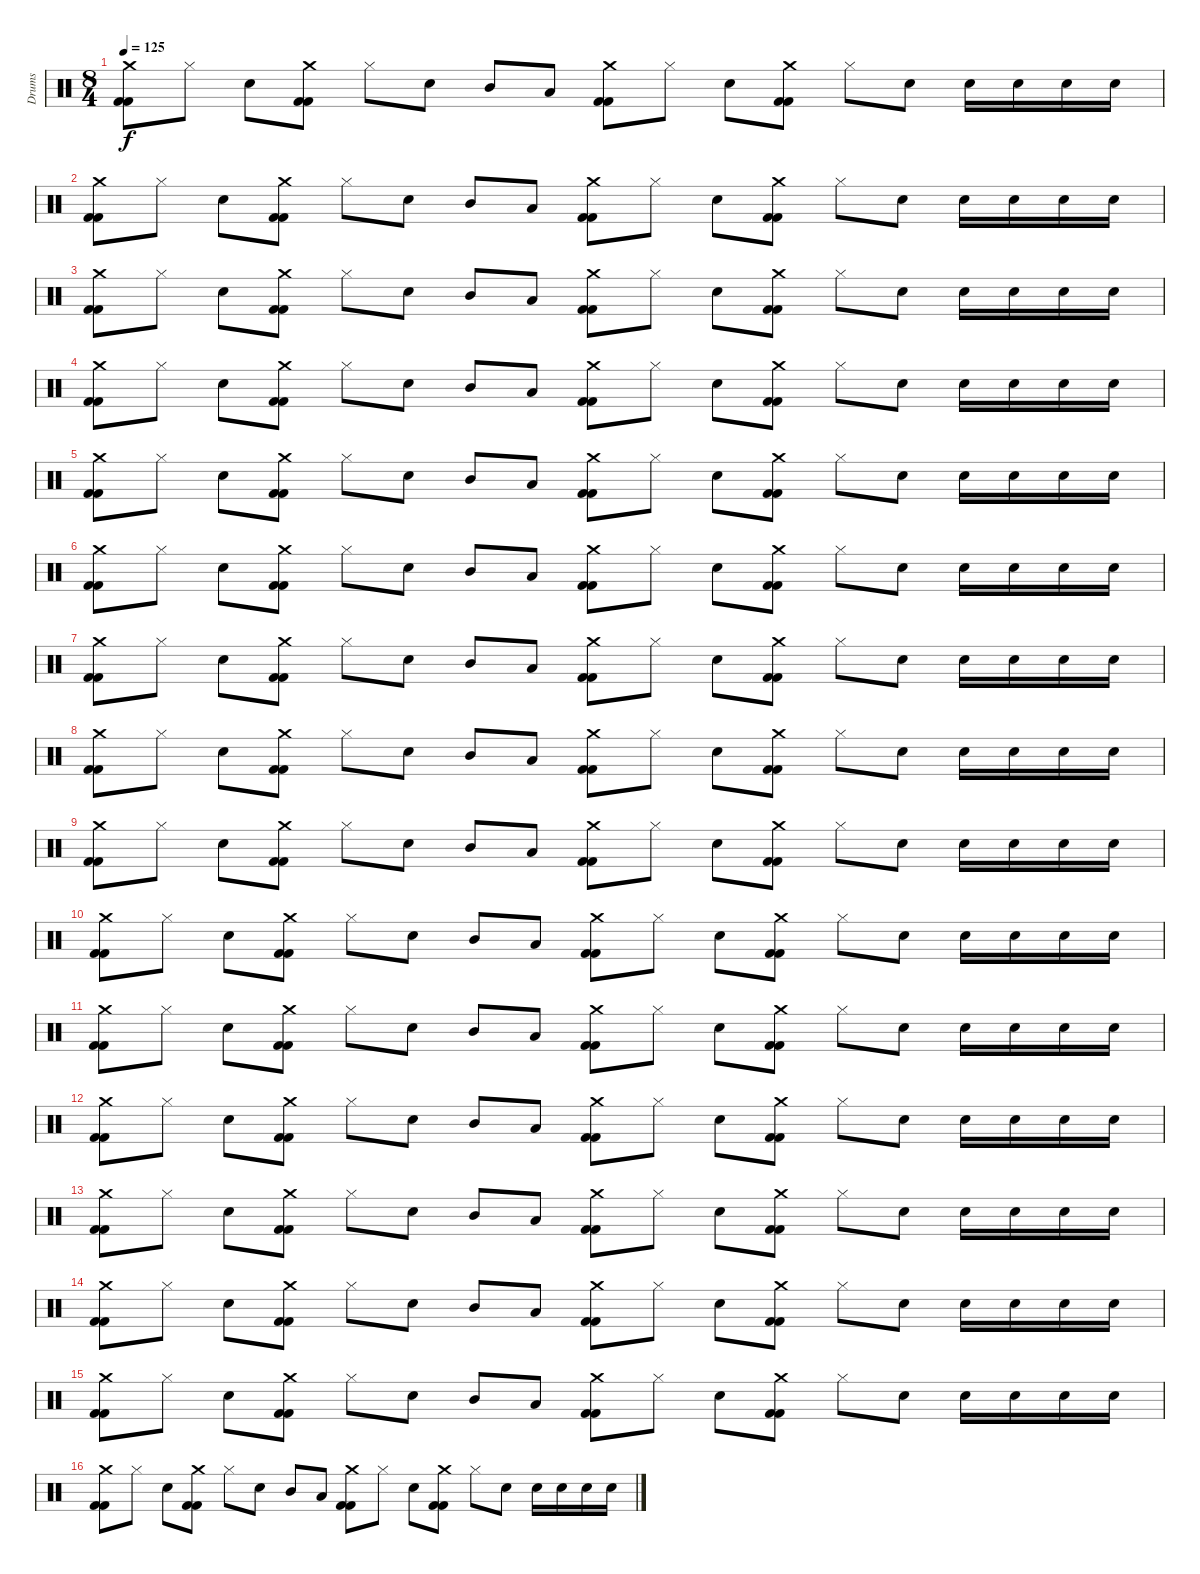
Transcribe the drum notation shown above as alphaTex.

\track ("Drums" "Drums") {instrument percussion}
\staff {score}
\articulation defaults
\ts (8 4)
\tempo 125
\clef neutral
\ks c
("Crash medium (hit)" "Kick (hit) 2" "Kick (hit) 2").8{dy f} "Hi-Hat (closed)".8 "Snare (hit) 2".8 ("Crash medium (hit)" "Kick (hit) 2" "Kick (hit) 2").8 "Hi-Hat (closed)".8 "Snare (hit) 2".8 "Mid Tom (hit)".8 "Low Tom (hit)".8 ("Crash medium (hit)" "Kick (hit) 2" "Kick (hit) 2").8 "Hi-Hat (closed)".8 "Snare (hit) 2".8 ("Crash medium (hit)" "Kick (hit) 2" "Kick (hit) 2").8 "Hi-Hat (closed)".8 "Snare (hit) 2".8 "Snare (hit) 2".16 "Snare (hit) 2".16 "Snare (hit) 2".16 "Snare (hit) 2".16 |
("Crash medium (hit)" "Kick (hit) 2" "Kick (hit) 2").8 "Hi-Hat (closed)".8 "Snare (hit) 2".8 ("Crash medium (hit)" "Kick (hit) 2" "Kick (hit) 2").8 "Hi-Hat (closed)".8 "Snare (hit) 2".8 "Mid Tom (hit)".8 "Low Tom (hit)".8 ("Crash medium (hit)" "Kick (hit) 2" "Kick (hit) 2").8 "Hi-Hat (closed)".8 "Snare (hit) 2".8 ("Crash medium (hit)" "Kick (hit) 2" "Kick (hit) 2").8 "Hi-Hat (closed)".8 "Snare (hit) 2".8 "Snare (hit) 2".16 "Snare (hit) 2".16 "Snare (hit) 2".16 "Snare (hit) 2".16 |
("Crash medium (hit)" "Kick (hit) 2" "Kick (hit) 2").8 "Hi-Hat (closed)".8 "Snare (hit) 2".8 ("Crash medium (hit)" "Kick (hit) 2" "Kick (hit) 2").8 "Hi-Hat (closed)".8 "Snare (hit) 2".8 "Mid Tom (hit)".8 "Low Tom (hit)".8 ("Crash medium (hit)" "Kick (hit) 2" "Kick (hit) 2").8 "Hi-Hat (closed)".8 "Snare (hit) 2".8 ("Crash medium (hit)" "Kick (hit) 2" "Kick (hit) 2").8 "Hi-Hat (closed)".8 "Snare (hit) 2".8 "Snare (hit) 2".16 "Snare (hit) 2".16 "Snare (hit) 2".16 "Snare (hit) 2".16 |
("Crash medium (hit)" "Kick (hit) 2" "Kick (hit) 2").8 "Hi-Hat (closed)".8 "Snare (hit) 2".8 ("Crash medium (hit)" "Kick (hit) 2" "Kick (hit) 2").8 "Hi-Hat (closed)".8 "Snare (hit) 2".8 "Mid Tom (hit)".8 "Low Tom (hit)".8 ("Crash medium (hit)" "Kick (hit) 2" "Kick (hit) 2").8 "Hi-Hat (closed)".8 "Snare (hit) 2".8 ("Crash medium (hit)" "Kick (hit) 2" "Kick (hit) 2").8 "Hi-Hat (closed)".8 "Snare (hit) 2".8 "Snare (hit) 2".16 "Snare (hit) 2".16 "Snare (hit) 2".16 "Snare (hit) 2".16 |
("Crash medium (hit)" "Kick (hit) 2" "Kick (hit) 2").8 "Hi-Hat (closed)".8 "Snare (hit) 2".8 ("Crash medium (hit)" "Kick (hit) 2" "Kick (hit) 2").8 "Hi-Hat (closed)".8 "Snare (hit) 2".8 "Mid Tom (hit)".8 "Low Tom (hit)".8 ("Crash medium (hit)" "Kick (hit) 2" "Kick (hit) 2").8 "Hi-Hat (closed)".8 "Snare (hit) 2".8 ("Crash medium (hit)" "Kick (hit) 2" "Kick (hit) 2").8 "Hi-Hat (closed)".8 "Snare (hit) 2".8 "Snare (hit) 2".16 "Snare (hit) 2".16 "Snare (hit) 2".16 "Snare (hit) 2".16 |
("Crash medium (hit)" "Kick (hit) 2" "Kick (hit) 2").8 "Hi-Hat (closed)".8 "Snare (hit) 2".8 ("Crash medium (hit)" "Kick (hit) 2" "Kick (hit) 2").8 "Hi-Hat (closed)".8 "Snare (hit) 2".8 "Mid Tom (hit)".8 "Low Tom (hit)".8 ("Crash medium (hit)" "Kick (hit) 2" "Kick (hit) 2").8 "Hi-Hat (closed)".8 "Snare (hit) 2".8 ("Crash medium (hit)" "Kick (hit) 2" "Kick (hit) 2").8 "Hi-Hat (closed)".8 "Snare (hit) 2".8 "Snare (hit) 2".16 "Snare (hit) 2".16 "Snare (hit) 2".16 "Snare (hit) 2".16 |
("Crash medium (hit)" "Kick (hit) 2" "Kick (hit) 2").8 "Hi-Hat (closed)".8 "Snare (hit) 2".8 ("Crash medium (hit)" "Kick (hit) 2" "Kick (hit) 2").8 "Hi-Hat (closed)".8 "Snare (hit) 2".8 "Mid Tom (hit)".8 "Low Tom (hit)".8 ("Crash medium (hit)" "Kick (hit) 2" "Kick (hit) 2").8 "Hi-Hat (closed)".8 "Snare (hit) 2".8 ("Crash medium (hit)" "Kick (hit) 2" "Kick (hit) 2").8 "Hi-Hat (closed)".8 "Snare (hit) 2".8 "Snare (hit) 2".16 "Snare (hit) 2".16 "Snare (hit) 2".16 "Snare (hit) 2".16 |
("Crash medium (hit)" "Kick (hit) 2" "Kick (hit) 2").8 "Hi-Hat (closed)".8 "Snare (hit) 2".8 ("Crash medium (hit)" "Kick (hit) 2" "Kick (hit) 2").8 "Hi-Hat (closed)".8 "Snare (hit) 2".8 "Mid Tom (hit)".8 "Low Tom (hit)".8 ("Crash medium (hit)" "Kick (hit) 2" "Kick (hit) 2").8 "Hi-Hat (closed)".8 "Snare (hit) 2".8 ("Crash medium (hit)" "Kick (hit) 2" "Kick (hit) 2").8 "Hi-Hat (closed)".8 "Snare (hit) 2".8 "Snare (hit) 2".16 "Snare (hit) 2".16 "Snare (hit) 2".16 "Snare (hit) 2".16 |
("Crash medium (hit)" "Kick (hit) 2" "Kick (hit) 2").8 "Hi-Hat (closed)".8 "Snare (hit) 2".8 ("Crash medium (hit)" "Kick (hit) 2" "Kick (hit) 2").8 "Hi-Hat (closed)".8 "Snare (hit) 2".8 "Mid Tom (hit)".8 "Low Tom (hit)".8 ("Crash medium (hit)" "Kick (hit) 2" "Kick (hit) 2").8 "Hi-Hat (closed)".8 "Snare (hit) 2".8 ("Crash medium (hit)" "Kick (hit) 2" "Kick (hit) 2").8 "Hi-Hat (closed)".8 "Snare (hit) 2".8 "Snare (hit) 2".16 "Snare (hit) 2".16 "Snare (hit) 2".16 "Snare (hit) 2".16 |
("Crash medium (hit)" "Kick (hit) 2" "Kick (hit) 2").8 "Hi-Hat (closed)".8 "Snare (hit) 2".8 ("Crash medium (hit)" "Kick (hit) 2" "Kick (hit) 2").8 "Hi-Hat (closed)".8 "Snare (hit) 2".8 "Mid Tom (hit)".8 "Low Tom (hit)".8 ("Crash medium (hit)" "Kick (hit) 2" "Kick (hit) 2").8 "Hi-Hat (closed)".8 "Snare (hit) 2".8 ("Crash medium (hit)" "Kick (hit) 2" "Kick (hit) 2").8 "Hi-Hat (closed)".8 "Snare (hit) 2".8 "Snare (hit) 2".16 "Snare (hit) 2".16 "Snare (hit) 2".16 "Snare (hit) 2".16 |
("Crash medium (hit)" "Kick (hit) 2" "Kick (hit) 2").8 "Hi-Hat (closed)".8 "Snare (hit) 2".8 ("Crash medium (hit)" "Kick (hit) 2" "Kick (hit) 2").8 "Hi-Hat (closed)".8 "Snare (hit) 2".8 "Mid Tom (hit)".8 "Low Tom (hit)".8 ("Crash medium (hit)" "Kick (hit) 2" "Kick (hit) 2").8 "Hi-Hat (closed)".8 "Snare (hit) 2".8 ("Crash medium (hit)" "Kick (hit) 2" "Kick (hit) 2").8 "Hi-Hat (closed)".8 "Snare (hit) 2".8 "Snare (hit) 2".16 "Snare (hit) 2".16 "Snare (hit) 2".16 "Snare (hit) 2".16 |
("Crash medium (hit)" "Kick (hit) 2" "Kick (hit) 2").8 "Hi-Hat (closed)".8 "Snare (hit) 2".8 ("Crash medium (hit)" "Kick (hit) 2" "Kick (hit) 2").8 "Hi-Hat (closed)".8 "Snare (hit) 2".8 "Mid Tom (hit)".8 "Low Tom (hit)".8 ("Crash medium (hit)" "Kick (hit) 2" "Kick (hit) 2").8 "Hi-Hat (closed)".8 "Snare (hit) 2".8 ("Crash medium (hit)" "Kick (hit) 2" "Kick (hit) 2").8 "Hi-Hat (closed)".8 "Snare (hit) 2".8 "Snare (hit) 2".16 "Snare (hit) 2".16 "Snare (hit) 2".16 "Snare (hit) 2".16 |
("Crash medium (hit)" "Kick (hit) 2" "Kick (hit) 2").8 "Hi-Hat (closed)".8 "Snare (hit) 2".8 ("Crash medium (hit)" "Kick (hit) 2" "Kick (hit) 2").8 "Hi-Hat (closed)".8 "Snare (hit) 2".8 "Mid Tom (hit)".8 "Low Tom (hit)".8 ("Crash medium (hit)" "Kick (hit) 2" "Kick (hit) 2").8 "Hi-Hat (closed)".8 "Snare (hit) 2".8 ("Crash medium (hit)" "Kick (hit) 2" "Kick (hit) 2").8 "Hi-Hat (closed)".8 "Snare (hit) 2".8 "Snare (hit) 2".16 "Snare (hit) 2".16 "Snare (hit) 2".16 "Snare (hit) 2".16 |
("Crash medium (hit)" "Kick (hit) 2" "Kick (hit) 2").8 "Hi-Hat (closed)".8 "Snare (hit) 2".8 ("Crash medium (hit)" "Kick (hit) 2" "Kick (hit) 2").8 "Hi-Hat (closed)".8 "Snare (hit) 2".8 "Mid Tom (hit)".8 "Low Tom (hit)".8 ("Crash medium (hit)" "Kick (hit) 2" "Kick (hit) 2").8 "Hi-Hat (closed)".8 "Snare (hit) 2".8 ("Crash medium (hit)" "Kick (hit) 2" "Kick (hit) 2").8 "Hi-Hat (closed)".8 "Snare (hit) 2".8 "Snare (hit) 2".16 "Snare (hit) 2".16 "Snare (hit) 2".16 "Snare (hit) 2".16 |
("Crash medium (hit)" "Kick (hit) 2" "Kick (hit) 2").8 "Hi-Hat (closed)".8 "Snare (hit) 2".8 ("Crash medium (hit)" "Kick (hit) 2" "Kick (hit) 2").8 "Hi-Hat (closed)".8 "Snare (hit) 2".8 "Mid Tom (hit)".8 "Low Tom (hit)".8 ("Crash medium (hit)" "Kick (hit) 2" "Kick (hit) 2").8 "Hi-Hat (closed)".8 "Snare (hit) 2".8 ("Crash medium (hit)" "Kick (hit) 2" "Kick (hit) 2").8 "Hi-Hat (closed)".8 "Snare (hit) 2".8 "Snare (hit) 2".16 "Snare (hit) 2".16 "Snare (hit) 2".16 "Snare (hit) 2".16 |
("Crash medium (hit)" "Kick (hit) 2" "Kick (hit) 2").8 "Hi-Hat (closed)".8 "Snare (hit) 2".8 ("Crash medium (hit)" "Kick (hit) 2" "Kick (hit) 2").8 "Hi-Hat (closed)".8 "Snare (hit) 2".8 "Mid Tom (hit)".8 "Low Tom (hit)".8 ("Crash medium (hit)" "Kick (hit) 2" "Kick (hit) 2").8 "Hi-Hat (closed)".8 "Snare (hit) 2".8 ("Crash medium (hit)" "Kick (hit) 2" "Kick (hit) 2").8 "Hi-Hat (closed)".8 "Snare (hit) 2".8 "Snare (hit) 2".16 "Snare (hit) 2".16 "Snare (hit) 2".16 "Snare (hit) 2".16
